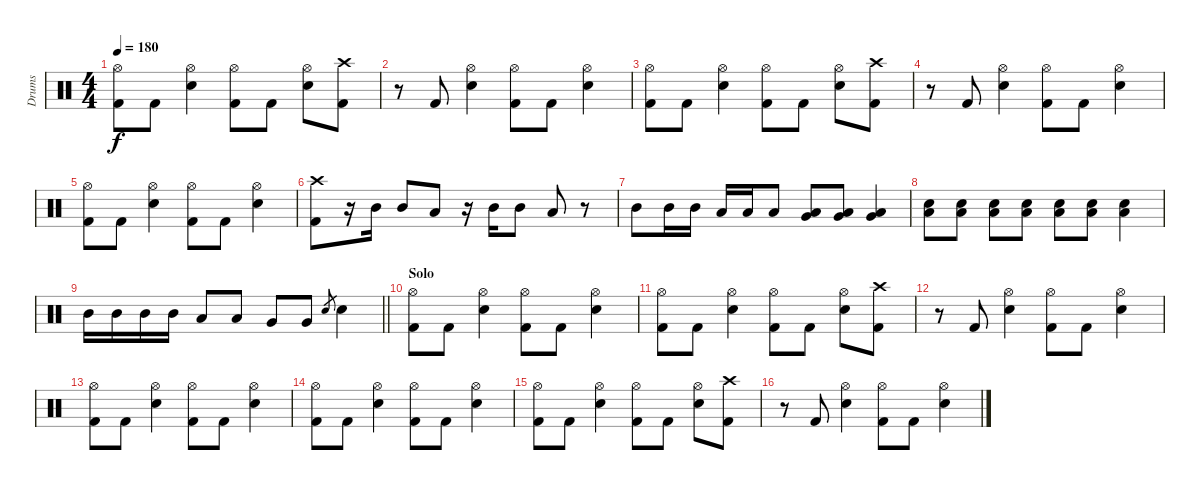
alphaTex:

\track ("Drums" "Drums") {instrument percussion}
\staff {score}
\articulation defaults
\ts (4 4)
\tempo 180
\clef neutral
\ks c
("Hi-Hat (open)" "Kick (hit) 2").8{dy f} "Kick (hit) 2".8 ("Hi-Hat (open)" "Electric Snare (hit)").4 ("Hi-Hat (open)" "Kick (hit) 2").8 "Kick (hit) 2".8 ("Hi-Hat (open)" "Electric Snare (hit)").8 ("Crash high (hit)" "Kick (hit) 2").8 |
r.8 "Kick (hit) 2".8 ("Hi-Hat (open)" "Electric Snare (hit)").4 ("Hi-Hat (open)" "Kick (hit) 2").8 "Kick (hit) 2".8 ("Hi-Hat (open)" "Electric Snare (hit)").4 |
("Hi-Hat (open)" "Kick (hit) 2").8 "Kick (hit) 2".8 ("Hi-Hat (open)" "Electric Snare (hit)").4 ("Hi-Hat (open)" "Kick (hit) 2").8 "Kick (hit) 2".8 ("Hi-Hat (open)" "Electric Snare (hit)").8 ("Crash high (hit)" "Kick (hit) 2").8 |
r.8 "Kick (hit) 2".8 ("Hi-Hat (open)" "Electric Snare (hit)").4 ("Hi-Hat (open)" "Kick (hit) 2").8 "Kick (hit) 2".8 ("Hi-Hat (open)" "Electric Snare (hit)").4 |
("Hi-Hat (open)" "Kick (hit) 2").8 "Kick (hit) 2".8 ("Hi-Hat (open)" "Electric Snare (hit)").4 ("Hi-Hat (open)" "Kick (hit) 2").8 "Kick (hit) 2".8 ("Hi-Hat (open)" "Electric Snare (hit)").4 |
("Crash high (hit)" "Kick (hit) 2").8 r.16 "Mid Tom (hit)".16 "Mid Tom (hit)".8 "Low Tom (hit)".8 r.16 "Mid Tom (hit)".16 "Mid Tom (hit)".8 "Low Tom (hit)".8 r.8 |
"Mid Tom (hit)".8 "Mid Tom (hit)".16 "Mid Tom (hit)".16 "Low Tom (hit)".16 "Low Tom (hit)".16 "Low Tom (hit)".8 ("Low Tom (hit)" "Very Low Tom (hit)").8 ("Low Tom (hit)" "Very Low Tom (hit)").8 ("Low Tom (hit)" "Very Low Tom (hit)").4 |
("Electric Snare (hit)" "Low Tom (hit)").8 ("Electric Snare (hit)" "Low Tom (hit)").8 ("Electric Snare (hit)" "Low Tom (hit)").8 ("Electric Snare (hit)" "Low Tom (hit)").8 ("Electric Snare (hit)" "Low Tom (hit)").8 ("Electric Snare (hit)" "Low Tom (hit)").8 ("Electric Snare (hit)" "Low Tom (hit)").4 |
\barLineRight lightlight "Mid Tom (hit)".16 "Mid Tom (hit)".16 "Mid Tom (hit)".16 "Mid Tom (hit)".16 "Low Tom (hit)".8 "Low Tom (hit)".8 "Very Low Tom (hit)".8 "Very Low Tom (hit)".8 "Electric Snare (hit)".8{gr} "Electric Snare (hit)".4
|
\section ("" "Solo")
("Hi-Hat (open)" "Kick (hit) 2").8 "Kick (hit) 2".8 ("Hi-Hat (open)" "Electric Snare (hit)").4 ("Hi-Hat (open)" "Kick (hit) 2").8 "Kick (hit) 2".8 ("Hi-Hat (open)" "Electric Snare (hit)").4 |
("Hi-Hat (open)" "Kick (hit) 2").8 "Kick (hit) 2".8 ("Hi-Hat (open)" "Electric Snare (hit)").4 ("Hi-Hat (open)" "Kick (hit) 2").8 "Kick (hit) 2".8 ("Hi-Hat (open)" "Electric Snare (hit)").8 ("Crash high (hit)" "Kick (hit) 2").8 |
r.8 "Kick (hit) 2".8 ("Hi-Hat (open)" "Electric Snare (hit)").4 ("Hi-Hat (open)" "Kick (hit) 2").8 "Kick (hit) 2".8 ("Hi-Hat (open)" "Electric Snare (hit)").4 |
("Hi-Hat (open)" "Kick (hit) 2").8 "Kick (hit) 2".8 ("Hi-Hat (open)" "Electric Snare (hit)").4 ("Hi-Hat (open)" "Kick (hit) 2").8 "Kick (hit) 2".8 ("Hi-Hat (open)" "Electric Snare (hit)").4 |
("Hi-Hat (open)" "Kick (hit) 2").8 "Kick (hit) 2".8 ("Hi-Hat (open)" "Electric Snare (hit)").4 ("Hi-Hat (open)" "Kick (hit) 2").8 "Kick (hit) 2".8 ("Hi-Hat (open)" "Electric Snare (hit)").4 |
("Hi-Hat (open)" "Kick (hit) 2").8 "Kick (hit) 2".8 ("Hi-Hat (open)" "Electric Snare (hit)").4 ("Hi-Hat (open)" "Kick (hit) 2").8 "Kick (hit) 2".8 ("Hi-Hat (open)" "Electric Snare (hit)").8 ("Crash high (hit)" "Kick (hit) 2").8 |
r.8 "Kick (hit) 2".8 ("Hi-Hat (open)" "Electric Snare (hit)").4 ("Hi-Hat (open)" "Kick (hit) 2").8 "Kick (hit) 2".8 ("Hi-Hat (open)" "Electric Snare (hit)").4
